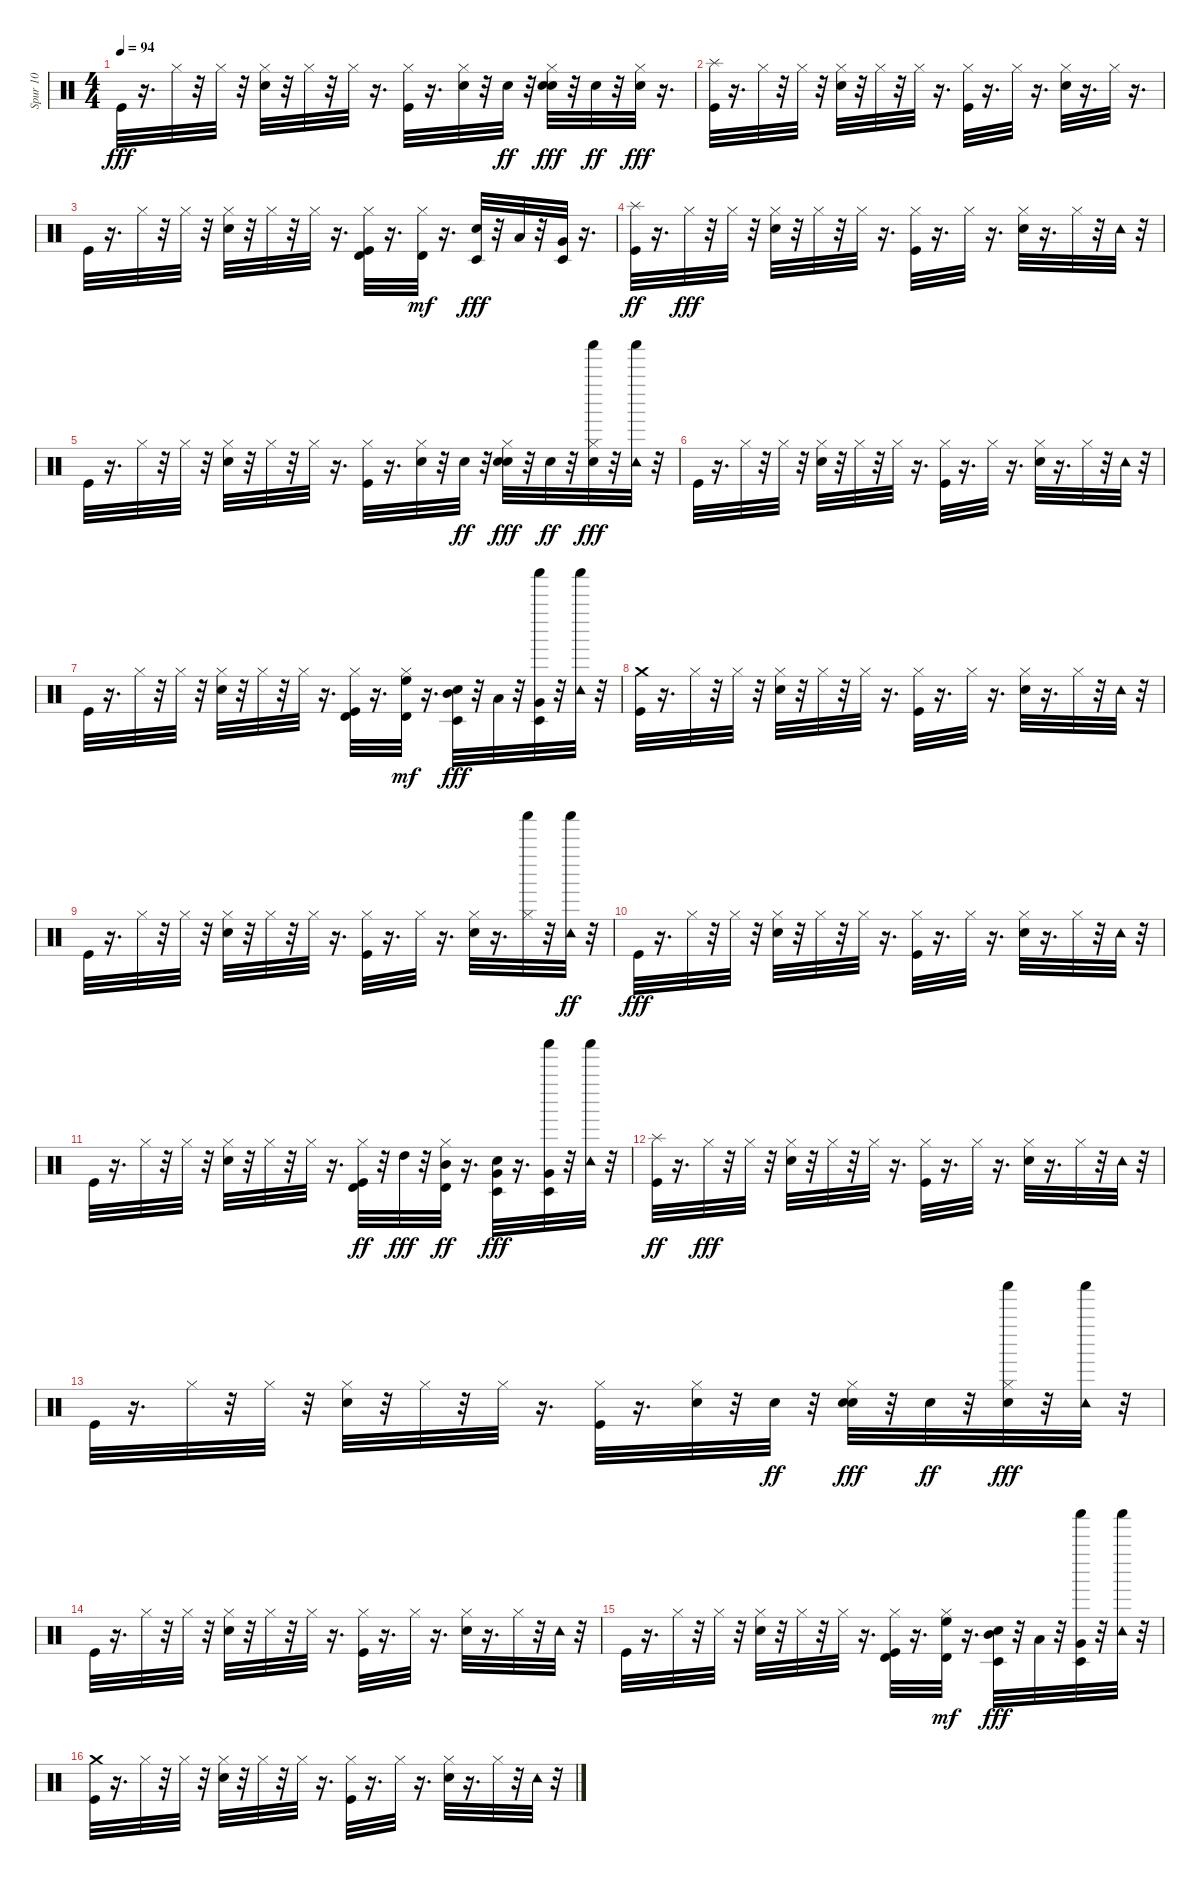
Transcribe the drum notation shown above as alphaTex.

\track ("Spur 10" "Spur 10") {instrument percussion}
\staff {score}
\articulation defaults
\ts (4 4)
\tempo 94
\clef neutral
\ks c "Kick (hit)".32{dy fff}
r.16{d} "Hi-Hat (closed)".32 r.32 "Hi-Hat (closed)".32 r.32 ("Snare (hit) 2" "Hi-Hat (closed)").32 r.32 "Hi-Hat (closed)".32 r.32 "Hi-Hat (closed)".32 r.16{d} ("Kick (hit)" "Hi-Hat (closed)").32 r.16{d} ("Hand Clap (hit)" "Hi-Hat (closed)").32 r.32 "Hand Clap (hit)".32{dy ff} r.32 ("Snare (hit) 2" "Hand Clap (hit)" "Hi-Hat (closed)").32{dy fff} r.32 "Hand Clap (hit)".32{dy ff} r.32 ("Hi-Hat (closed)" "Hand Clap (hit)").32{dy fff} r.16{d} |
("Kick (hit)" "Splash (hit)").32 r.16{d} "Hi-Hat (closed)".32 r.32 "Hi-Hat (closed)".32 r.32 ("Snare (hit) 2" "Hi-Hat (closed)").32 r.32 "Hi-Hat (closed)".32 r.32 "Hi-Hat (closed)".32 r.16{d} ("Kick (hit)" "Hi-Hat (closed)").32 r.16{d} "Hi-Hat (closed)".32 r.16{d} ("Snare (hit) 2" "Hi-Hat (closed)").32 r.16{d} "Hi-Hat (closed)".32 r.16{d} |
"Kick (hit)".32 r.16{d} "Hi-Hat (closed)".32 r.32 "Hi-Hat (closed)".32 r.32 ("Snare (hit) 2" "Hi-Hat (closed)").32 r.32 "Hi-Hat (closed)".32 r.32 "Hi-Hat (closed)".32 r.16{d} ("Kick (hit)" "Hi-Hat (closed)" "Timbale high (hit)").32 r.16{d} ("Hi-Hat (closed)" "Timbale high (hit)").32{dy mf} r.16{d} ("Snare (hit) 2" "Timbale low (hit)").32{dy fff} r.32 "Low Tom (hit)".32 r.32 ("Very Low Tom (hit)" "Timbale low (hit)").32 r.16{d} |
("Kick (hit)" "Splash (hit)").32{dy ff} r.16{d} "Hi-Hat (closed)".32{dy fff} r.32 "Hi-Hat (closed)".32 r.32 ("Snare (hit) 2" "Hi-Hat (closed)").32 r.32 "Hi-Hat (closed)".32 r.32 "Hi-Hat (closed)".32 r.16{d} ("Kick (hit)" "Hi-Hat (closed)").32 r.16{d} "Hi-Hat (closed)".32 r.16{d} ("Snare (hit) 2" "Hi-Hat (closed)").32 r.16{d} "Hi-Hat (closed)".32 r.32 "Tambourine (hit)".32 r.32 |
"Kick (hit)".32 r.16{d} "Hi-Hat (closed)".32 r.32 "Hi-Hat (closed)".32 r.32 ("Snare (hit) 2" "Hi-Hat (closed)").32 r.32 "Hi-Hat (closed)".32 r.32 "Hi-Hat (closed)".32 r.16{d} ("Kick (hit)" "Hi-Hat (closed)").32 r.16{d} ("Hand Clap (hit)" "Hi-Hat (closed)").32 r.32 "Hand Clap (hit)".32{dy ff} r.32 ("Snare (hit) 2" "Hand Clap (hit)" "Hi-Hat (closed)").32{dy fff} r.32 "Hand Clap (hit)".32{dy ff} r.32 ("Hi-Hat (closed)" "Shaker (hit)" "Hand Clap (hit)").32{dy fff} r.32 ("Tambourine (hit)" "Shaker (hit)").32 r.32 |
"Kick (hit)".32 r.16{d} "Hi-Hat (closed)".32 r.32 "Hi-Hat (closed)".32 r.32 ("Snare (hit) 2" "Hi-Hat (closed)").32 r.32 "Hi-Hat (closed)".32 r.32 "Hi-Hat (closed)".32 r.16{d} ("Kick (hit)" "Hi-Hat (closed)").32 r.16{d} "Hi-Hat (closed)".32 r.16{d} ("Snare (hit) 2" "Hi-Hat (closed)").32 r.16{d} "Hi-Hat (closed)".32 r.32 "Tambourine (hit)".32 r.32 |
"Kick (hit)".32 r.16{d} "Hi-Hat (closed)".32 r.32 "Hi-Hat (closed)".32 r.32 ("Snare (hit) 2" "Hi-Hat (closed)").32 r.32 "Hi-Hat (closed)".32 r.32 "Hi-Hat (closed)".32 r.16{d} ("Kick (hit)" "Hi-Hat (closed)" "Timbale high (hit)").32 r.16{d} ("Hi-Hat (closed)" "High Floor Tom (hit)" "Timbale high (hit)").32{dy mf} r.16{d} ("Snare (hit) 2" "Mid Tom (hit)" "Timbale low (hit)").32{dy fff} r.32 "Low Tom (hit)".32 r.32 ("Shaker (hit)" "Very Low Tom (hit)" "Timbale low (hit)").32 r.32 ("Tambourine (hit)" "Shaker (hit)").32 r.32 |
("Kick (hit)" "Crash medium (hit)").32 r.16{d} "Hi-Hat (closed)".32 r.32 "Hi-Hat (closed)".32 r.32 ("Snare (hit) 2" "Hi-Hat (closed)").32 r.32 "Hi-Hat (closed)".32 r.32 "Hi-Hat (closed)".32 r.16{d} ("Kick (hit)" "Hi-Hat (closed)").32 r.16{d} "Hi-Hat (closed)".32 r.16{d} ("Snare (hit) 2" "Hi-Hat (closed)").32 r.16{d} "Hi-Hat (closed)".32 r.32 "Tambourine (hit)".32 r.32 |
"Kick (hit)".32 r.16{d} "Hi-Hat (closed)".32 r.32 "Hi-Hat (closed)".32 r.32 ("Snare (hit) 2" "Hi-Hat (closed)").32 r.32 "Hi-Hat (closed)".32 r.32 "Hi-Hat (closed)".32 r.16{d} ("Kick (hit)" "Hi-Hat (closed)").32 r.16{d} "Hi-Hat (closed)".32 r.16{d} ("Snare (hit) 2" "Hi-Hat (closed)").32 r.16{d} ("Hi-Hat (closed)" "Shaker (hit)").32 r.32 ("Tambourine (hit)" "Shaker (hit)").32{dy ff} r.32 |
"Kick (hit)".32{dy fff} r.16{d} "Hi-Hat (closed)".32 r.32 "Hi-Hat (closed)".32 r.32 ("Snare (hit) 2" "Hi-Hat (closed)").32 r.32 "Hi-Hat (closed)".32 r.32 "Hi-Hat (closed)".32 r.16{d} ("Kick (hit)" "Hi-Hat (closed)").32 r.16{d} "Hi-Hat (closed)".32 r.16{d} ("Snare (hit) 2" "Hi-Hat (closed)").32 r.16{d} "Hi-Hat (closed)".32 r.32 "Tambourine (hit)".32 r.32 |
"Kick (hit)".32 r.16{d} "Hi-Hat (closed)".32 r.32 "Hi-Hat (closed)".32 r.32 ("Snare (hit) 2" "Hi-Hat (closed)").32 r.32 "Hi-Hat (closed)".32 r.32 "Hi-Hat (closed)".32 r.16{d} ("Kick (hit)" "Hi-Hat (closed)" "Timbale high (hit)").32{dy ff} r.32 "High Tom (hit)".32{dy fff} r.32 ("Mid Tom (hit)" "Hi-Hat (closed)" "Timbale high (hit)").32{dy ff} r.16{d} ("Snare (hit) 2" "Timbale low (hit)" "Very Low Tom (hit)").32{dy fff} r.16{d} ("Shaker (hit)" "Timbale low (hit)" "Very Low Tom (hit)").32 r.32 ("Tambourine (hit)" "Shaker (hit)").32 r.32 |
("Kick (hit)" "Splash (hit)").32{dy ff} r.16{d} "Hi-Hat (closed)".32{dy fff} r.32 "Hi-Hat (closed)".32 r.32 ("Snare (hit) 2" "Hi-Hat (closed)").32 r.32 "Hi-Hat (closed)".32 r.32 "Hi-Hat (closed)".32 r.16{d} ("Kick (hit)" "Hi-Hat (closed)").32 r.16{d} "Hi-Hat (closed)".32 r.16{d} ("Snare (hit) 2" "Hi-Hat (closed)").32 r.16{d} "Hi-Hat (closed)".32 r.32 "Tambourine (hit)".32 r.32 |
"Kick (hit)".32 r.16{d} "Hi-Hat (closed)".32 r.32 "Hi-Hat (closed)".32 r.32 ("Snare (hit) 2" "Hi-Hat (closed)").32 r.32 "Hi-Hat (closed)".32 r.32 "Hi-Hat (closed)".32 r.16{d} ("Kick (hit)" "Hi-Hat (closed)").32 r.16{d} ("Hand Clap (hit)" "Hi-Hat (closed)").32 r.32 "Hand Clap (hit)".32{dy ff} r.32 ("Snare (hit) 2" "Hand Clap (hit)" "Hi-Hat (closed)").32{dy fff} r.32 "Hand Clap (hit)".32{dy ff} r.32 ("Hi-Hat (closed)" "Shaker (hit)" "Hand Clap (hit)").32{dy fff} r.32 ("Tambourine (hit)" "Shaker (hit)").32 r.32 |
"Kick (hit)".32 r.16{d} "Hi-Hat (closed)".32 r.32 "Hi-Hat (closed)".32 r.32 ("Snare (hit) 2" "Hi-Hat (closed)").32 r.32 "Hi-Hat (closed)".32 r.32 "Hi-Hat (closed)".32 r.16{d} ("Kick (hit)" "Hi-Hat (closed)").32 r.16{d} "Hi-Hat (closed)".32 r.16{d} ("Snare (hit) 2" "Hi-Hat (closed)").32 r.16{d} "Hi-Hat (closed)".32 r.32 "Tambourine (hit)".32 r.32 |
"Kick (hit)".32 r.16{d} "Hi-Hat (closed)".32 r.32 "Hi-Hat (closed)".32 r.32 ("Snare (hit) 2" "Hi-Hat (closed)").32 r.32 "Hi-Hat (closed)".32 r.32 "Hi-Hat (closed)".32 r.16{d} ("Kick (hit)" "Hi-Hat (closed)" "Timbale high (hit)").32 r.16{d} ("Hi-Hat (closed)" "High Floor Tom (hit)" "Timbale high (hit)").32{dy mf} r.16{d} ("Snare (hit) 2" "Mid Tom (hit)" "Timbale low (hit)").32{dy fff} r.32 "Low Tom (hit)".32 r.32 ("Shaker (hit)" "Very Low Tom (hit)" "Timbale low (hit)").32 r.32 ("Tambourine (hit)" "Shaker (hit)").32 r.32 |
("Kick (hit)" "Crash medium (hit)").32 r.16{d} "Hi-Hat (closed)".32 r.32 "Hi-Hat (closed)".32 r.32 ("Snare (hit) 2" "Hi-Hat (closed)").32 r.32 "Hi-Hat (closed)".32 r.32 "Hi-Hat (closed)".32 r.16{d} ("Kick (hit)" "Hi-Hat (closed)").32 r.16{d} "Hi-Hat (closed)".32 r.16{d} ("Snare (hit) 2" "Hi-Hat (closed)").32 r.16{d} "Hi-Hat (closed)".32 r.32 "Tambourine (hit)".32 r.32
